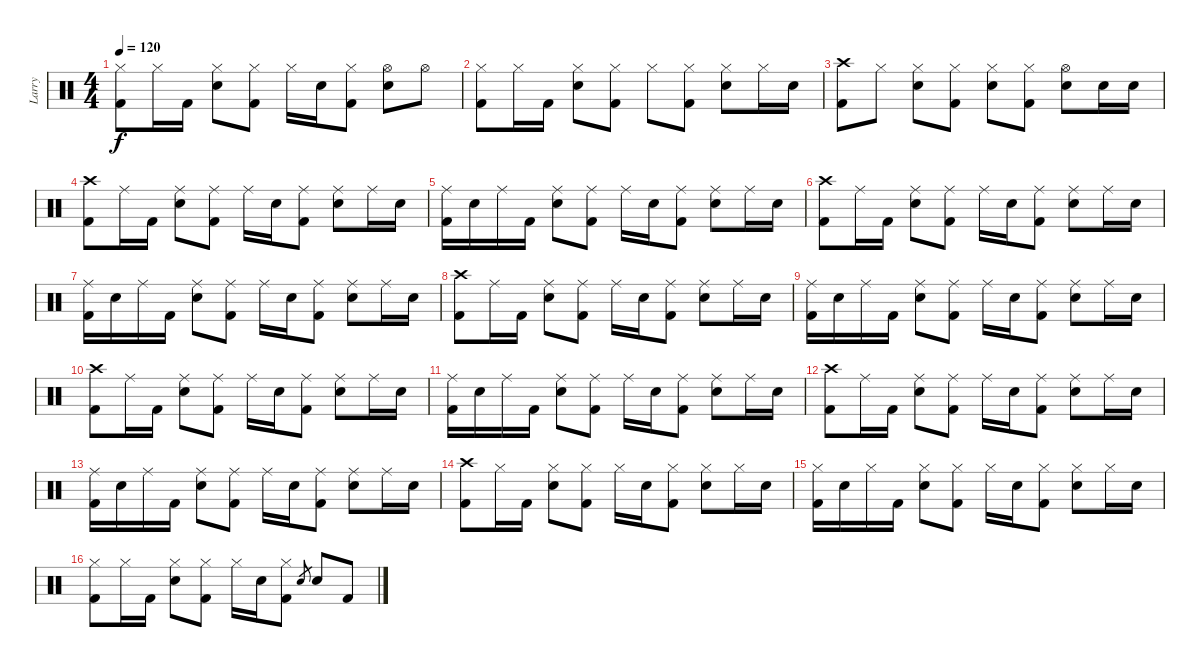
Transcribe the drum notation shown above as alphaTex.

\track ("Larry" "Larry") {instrument percussion}
\staff {score}
\articulation defaults
\ts (4 4)
\tempo 120
\clef neutral
\ks c
("Hi-Hat (closed)" "Kick (hit) 2").8{dy f} "Hi-Hat (closed)".16 "Kick (hit) 2".16 ("Hi-Hat (closed)" "Snare (hit) 2").8 ("Hi-Hat (closed)" "Kick (hit) 2").8 "Hi-Hat (closed)".16 "Snare (hit) 2".16 ("Hi-Hat (closed)" "Kick (hit) 2").8 ("Hi-Hat (open)" "Snare (hit) 2").8 "Hi-Hat (open)".8 |
("Hi-Hat (closed)" "Kick (hit) 2").8 "Hi-Hat (closed)".16 "Kick (hit) 2".16 ("Hi-Hat (closed)" "Snare (hit) 2").8 ("Hi-Hat (closed)" "Kick (hit) 2").8 "Hi-Hat (closed)".8 ("Hi-Hat (closed)" "Kick (hit) 2").8 ("Hi-Hat (closed)" "Snare (hit) 2").8 "Hi-Hat (closed)".16 "Snare (hit) 2".16 |
("Crash high (hit)" "Kick (hit) 2").8 "Hi-Hat (closed)".8 ("Hi-Hat (closed)" "Snare (hit) 2").8 ("Hi-Hat (closed)" "Kick (hit) 2").8 ("Hi-Hat (closed)" "Snare (hit) 2").8 ("Hi-Hat (closed)" "Kick (hit) 2").8 ("Hi-Hat (open)" "Snare (hit) 2").8 "Snare (hit) 2".16 "Snare (hit) 2".16 |
("Crash high (hit)" "Kick (hit) 2").8 "Ride (middle)".16 "Kick (hit) 2".16 ("Ride (middle)" "Snare (hit) 2").8 ("Ride (middle)" "Kick (hit) 2").8 "Ride (middle)".16 "Snare (hit) 2".16 ("Ride (middle)" "Kick (hit) 2").8 ("Ride (middle)" "Snare (hit) 2").8 "Ride (middle)".16 "Snare (hit) 2".16 |
("Ride (middle)" "Kick (hit) 2").16 "Snare (hit) 2".16 "Ride (middle)".16 "Kick (hit) 2".16 ("Ride (middle)" "Snare (hit) 2").8 ("Ride (middle)" "Kick (hit) 2").8 "Ride (middle)".16 "Snare (hit) 2".16 ("Ride (middle)" "Kick (hit) 2").8 ("Ride (middle)" "Snare (hit) 2").8 "Ride (middle)".16 "Snare (hit) 2".16 |
("Crash high (hit)" "Kick (hit) 2").8 "Ride (middle)".16 "Kick (hit) 2".16 ("Ride (middle)" "Snare (hit) 2").8 ("Ride (middle)" "Kick (hit) 2").8 "Ride (middle)".16 "Snare (hit) 2".16 ("Ride (middle)" "Kick (hit) 2").8 ("Ride (middle)" "Snare (hit) 2").8 "Ride (middle)".16 "Snare (hit) 2".16 |
("Ride (middle)" "Kick (hit) 2").16 "Snare (hit) 2".16 "Ride (middle)".16 "Kick (hit) 2".16 ("Ride (middle)" "Snare (hit) 2").8 ("Ride (middle)" "Kick (hit) 2").8 "Ride (middle)".16 "Snare (hit) 2".16 ("Ride (middle)" "Kick (hit) 2").8 ("Ride (middle)" "Snare (hit) 2").8 "Ride (middle)".16 "Snare (hit) 2".16 |
("Crash high (hit)" "Kick (hit) 2").8 "Ride (middle)".16 "Kick (hit) 2".16 ("Ride (middle)" "Snare (hit) 2").8 ("Ride (middle)" "Kick (hit) 2").8 "Ride (middle)".16 "Snare (hit) 2".16 ("Ride (middle)" "Kick (hit) 2").8 ("Ride (middle)" "Snare (hit) 2").8 "Ride (middle)".16 "Snare (hit) 2".16 |
("Ride (middle)" "Kick (hit) 2").16 "Snare (hit) 2".16 "Ride (middle)".16 "Kick (hit) 2".16 ("Ride (middle)" "Snare (hit) 2").8 ("Ride (middle)" "Kick (hit) 2").8 "Ride (middle)".16 "Snare (hit) 2".16 ("Ride (middle)" "Kick (hit) 2").8 ("Ride (middle)" "Snare (hit) 2").8 "Ride (middle)".16 "Snare (hit) 2".16 |
("Crash high (hit)" "Kick (hit) 2").8 "Ride (middle)".16 "Kick (hit) 2".16 ("Ride (middle)" "Snare (hit) 2").8 ("Ride (middle)" "Kick (hit) 2").8 "Ride (middle)".16 "Snare (hit) 2".16 ("Ride (middle)" "Kick (hit) 2").8 ("Ride (middle)" "Snare (hit) 2").8 "Ride (middle)".16 "Snare (hit) 2".16 |
("Ride (middle)" "Kick (hit) 2").16 "Snare (hit) 2".16 "Ride (middle)".16 "Kick (hit) 2".16 ("Ride (middle)" "Snare (hit) 2").8 ("Ride (middle)" "Kick (hit) 2").8 "Ride (middle)".16 "Snare (hit) 2".16 ("Ride (middle)" "Kick (hit) 2").8 ("Ride (middle)" "Snare (hit) 2").8 "Ride (middle)".16 "Snare (hit) 2".16 |
("Crash high (hit)" "Kick (hit) 2").8 "Ride (middle)".16 "Kick (hit) 2".16 ("Ride (middle)" "Snare (hit) 2").8 ("Ride (middle)" "Kick (hit) 2").8 "Ride (middle)".16 "Snare (hit) 2".16 ("Ride (middle)" "Kick (hit) 2").8 ("Ride (middle)" "Snare (hit) 2").8 "Ride (middle)".16 "Snare (hit) 2".16 |
("Ride (middle)" "Kick (hit) 2").16 "Snare (hit) 2".16 "Ride (middle)".16 "Kick (hit) 2".16 ("Ride (middle)" "Snare (hit) 2").8 ("Ride (middle)" "Kick (hit) 2").8 "Ride (middle)".16 "Snare (hit) 2".16 ("Ride (middle)" "Kick (hit) 2").8 ("Ride (middle)" "Snare (hit) 2").8 "Ride (middle)".16 "Snare (hit) 2".16 |
("Crash high (hit)" "Kick (hit) 2").8 "Hi-Hat (closed)".16 "Kick (hit) 2".16 ("Hi-Hat (closed)" "Snare (hit) 2").8 ("Hi-Hat (closed)" "Kick (hit) 2").8 "Hi-Hat (closed)".16 "Snare (hit) 2".16 ("Hi-Hat (closed)" "Kick (hit) 2").8 ("Hi-Hat (closed)" "Snare (hit) 2").8 "Hi-Hat (closed)".16 "Snare (hit) 2".16 |
("Hi-Hat (closed)" "Kick (hit) 2").16 "Snare (hit) 2".16 "Hi-Hat (closed)".16 "Kick (hit) 2".16 ("Hi-Hat (closed)" "Snare (hit) 2").8 ("Hi-Hat (closed)" "Kick (hit) 2").8 "Hi-Hat (closed)".16 "Snare (hit) 2".16 ("Hi-Hat (closed)" "Kick (hit) 2").8 ("Hi-Hat (closed)" "Snare (hit) 2").8 "Hi-Hat (closed)".16 "Snare (hit) 2".16 |
("Hi-Hat (closed)" "Kick (hit) 2").8 "Hi-Hat (closed)".16 "Kick (hit) 2".16 ("Hi-Hat (closed)" "Snare (hit) 2").8 ("Hi-Hat (closed)" "Kick (hit) 2").8 "Hi-Hat (closed)".16 "Snare (hit) 2".16 ("Hi-Hat (closed)" "Kick (hit) 2").8 "Snare (hit) 2".8{gr} "Snare (hit) 2".8 "Kick (hit) 2".8
